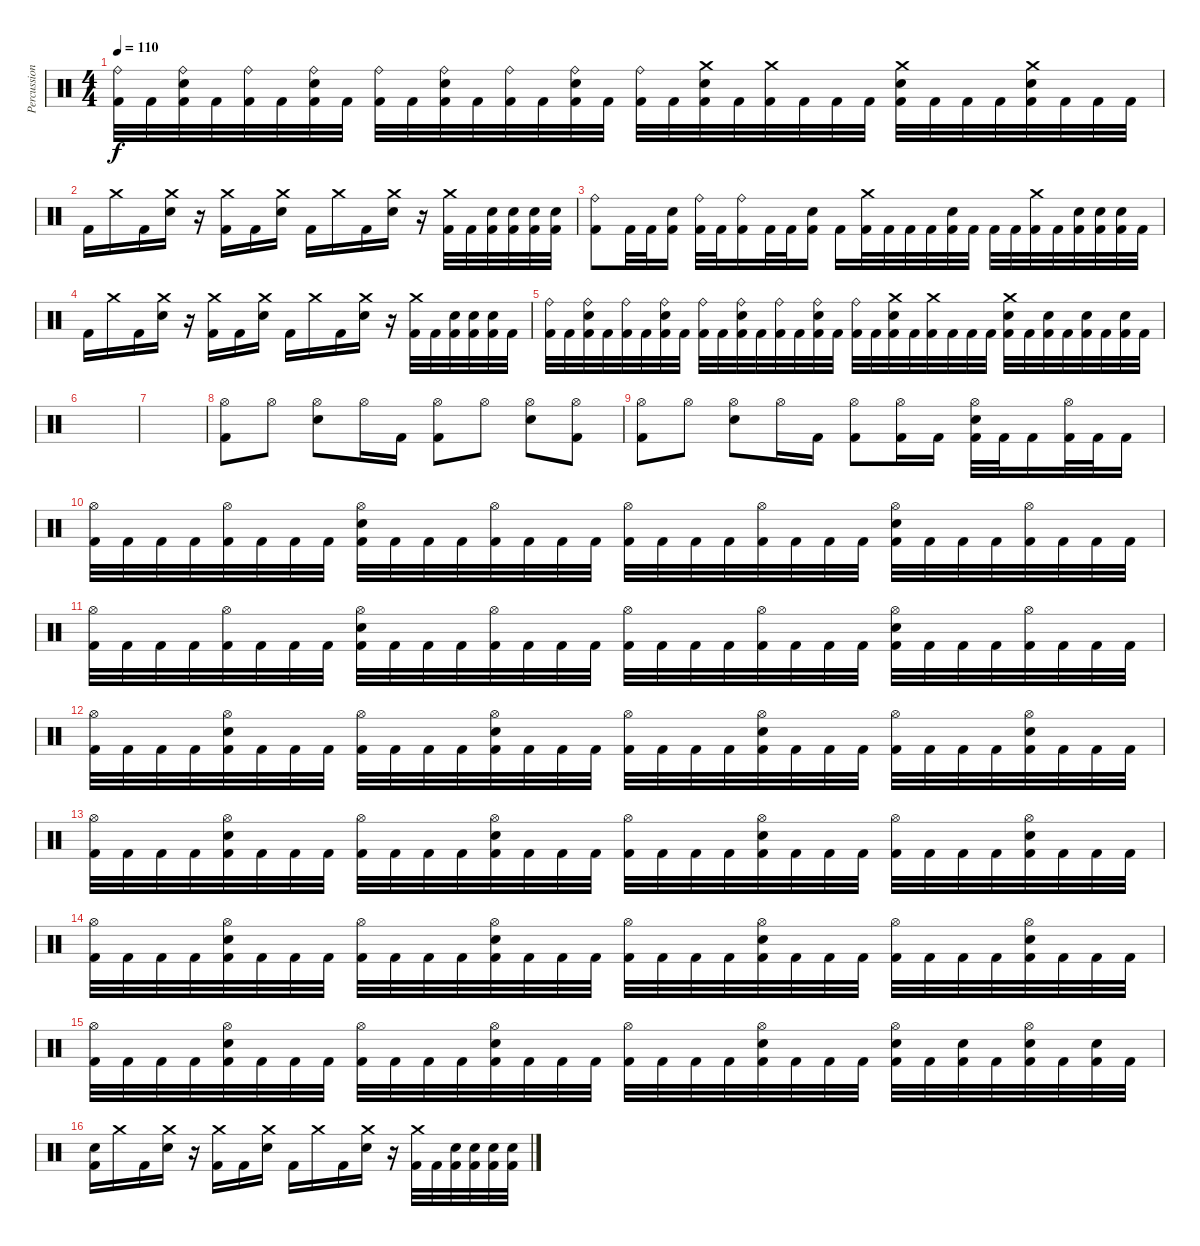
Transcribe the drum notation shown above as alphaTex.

\track ("Percussion" "Percussion") {instrument percussion}
\staff {score}
\articulation defaults
\ts (4 4)
\tempo 110
\clef neutral
\ks c
("Ride (bell)" "Kick (hit) 2").32{dy f} "Kick (hit) 2".32 ("Ride (bell)" "Electric Snare (hit)" "Kick (hit) 2").32 "Kick (hit) 2".32 ("Ride (bell)" "Kick (hit) 2").32 "Kick (hit) 2".32 ("Ride (bell)" "Electric Snare (hit)" "Kick (hit) 2").32 "Kick (hit) 2".32 ("Ride (bell)" "Kick (hit) 2").32 "Kick (hit) 2".32 ("Ride (bell)" "Electric Snare (hit)" "Kick (hit) 2").32 "Kick (hit) 2".32 ("Ride (bell)" "Kick (hit) 2").32 "Kick (hit) 2".32 ("Ride (bell)" "Electric Snare (hit)" "Kick (hit) 2").32 "Kick (hit) 2".32 ("Ride (bell)" "Kick (hit) 2").32 "Kick (hit) 2".32 ("Crash medium (hit)" "Electric Snare (hit)" "Kick (hit) 2").32 "Kick (hit) 2".32 ("Crash medium (hit)" "Kick (hit) 2").32 "Kick (hit) 2".32 "Kick (hit) 2".32 "Kick (hit) 2".32 ("Crash medium (hit)" "Electric Snare (hit)" "Kick (hit) 2").32 "Kick (hit) 2".32 "Kick (hit) 2".32 "Kick (hit) 2".32 ("Crash medium (hit)" "Electric Snare (hit)" "Kick (hit) 2").32 "Kick (hit) 2".32 "Kick (hit) 2".32 "Kick (hit) 2".32 |
"Kick (hit) 2".16 "Crash medium (hit)".16 "Kick (hit) 2".16 ("Crash medium (hit)" "Electric Snare (hit)").16 r.16 ("Crash medium (hit)" "Kick (hit) 2").16 "Kick (hit) 2".16 ("Crash medium (hit)" "Electric Snare (hit)").16 "Kick (hit) 2".16 "Crash medium (hit)".16 "Kick (hit) 2".16 ("Crash medium (hit)" "Electric Snare (hit)").16 r.16 ("Crash medium (hit)" "Kick (hit) 2").32 "Kick (hit) 2".32 ("Electric Snare (hit)" "Kick (hit) 2").32 ("Electric Snare (hit)" "Kick (hit) 2").32 ("Electric Snare (hit)" "Kick (hit) 2").32 ("Electric Snare (hit)" "Kick (hit) 2").32 |
("Ride (bell)" "Kick (hit) 2").8 "Kick (hit) 2".32 "Kick (hit) 2".32 ("Electric Snare (hit)" "Kick (hit) 2").16 ("Ride (bell)" "Kick (hit) 2").32 "Kick (hit) 2".32 ("Ride (bell)" "Kick (hit) 2").16 "Kick (hit) 2".32 "Kick (hit) 2".32 ("Electric Snare (hit)" "Kick (hit) 2").16 "Kick (hit) 2".16 ("Crash medium (hit)" "Kick (hit) 2").32 "Kick (hit) 2".32 "Kick (hit) 2".32 "Kick (hit) 2".32 ("Electric Snare (hit)" "Kick (hit) 2").32 "Kick (hit) 2".32 "Kick (hit) 2".32 "Kick (hit) 2".32 ("Crash medium (hit)" "Kick (hit) 2").32 "Kick (hit) 2".32 ("Electric Snare (hit)" "Kick (hit) 2").32 ("Electric Snare (hit)" "Kick (hit) 2").32 ("Electric Snare (hit)" "Kick (hit) 2").32 "Kick (hit) 2".32 |
"Kick (hit) 2".16 "Crash medium (hit)".16 "Kick (hit) 2".16 ("Crash medium (hit)" "Electric Snare (hit)").16 r.16 ("Crash medium (hit)" "Kick (hit) 2").16 "Kick (hit) 2".16 ("Crash medium (hit)" "Electric Snare (hit)").16 "Kick (hit) 2".16 "Crash medium (hit)".16 "Kick (hit) 2".16 ("Crash medium (hit)" "Electric Snare (hit)").16 r.16 ("Crash medium (hit)" "Kick (hit) 2").32 "Kick (hit) 2".32 ("Electric Snare (hit)" "Kick (hit) 2").32 ("Electric Snare (hit)" "Kick (hit) 2").32 ("Electric Snare (hit)" "Kick (hit) 2").32 "Kick (hit) 2".32 |
("Ride (bell)" "Kick (hit) 2").32 "Kick (hit) 2".32 ("Ride (bell)" "Electric Snare (hit)" "Kick (hit) 2").32 "Kick (hit) 2".32 ("Ride (bell)" "Kick (hit) 2").32 "Kick (hit) 2".32 ("Ride (bell)" "Electric Snare (hit)" "Kick (hit) 2").32 "Kick (hit) 2".32 ("Ride (bell)" "Kick (hit) 2").32 "Kick (hit) 2".32 ("Ride (bell)" "Electric Snare (hit)" "Kick (hit) 2").32 "Kick (hit) 2".32 ("Ride (bell)" "Kick (hit) 2").32 "Kick (hit) 2".32 ("Ride (bell)" "Electric Snare (hit)" "Kick (hit) 2").32 "Kick (hit) 2".32 ("Ride (bell)" "Kick (hit) 2").32 "Kick (hit) 2".32 ("Crash medium (hit)" "Electric Snare (hit)" "Kick (hit) 2").32 "Kick (hit) 2".32 ("Crash medium (hit)" "Kick (hit) 2").32 "Kick (hit) 2".32 "Kick (hit) 2".32 "Kick (hit) 2".32 ("Crash medium (hit)" "Electric Snare (hit)" "Kick (hit) 2").32 "Kick (hit) 2".32 ("Electric Snare (hit)" "Kick (hit) 2").32 "Kick (hit) 2".32 ("Electric Snare (hit)" "Kick (hit) 2").32 "Kick (hit) 2".32 ("Electric Snare (hit)" "Kick (hit) 2").32 "Kick (hit) 2".32 |
|
|
("Hi-Hat (open)" "Kick (hit) 2").8 "Hi-Hat (open)".8 ("Hi-Hat (open)" "Electric Snare (hit)").8 "Hi-Hat (open)".16 "Kick (hit) 2".16 ("Hi-Hat (open)" "Kick (hit) 2").8 "Hi-Hat (open)".8 ("Hi-Hat (open)" "Electric Snare (hit)").8 ("Hi-Hat (open)" "Kick (hit) 2").8 |
("Hi-Hat (open)" "Kick (hit) 2").8 "Hi-Hat (open)".8 ("Hi-Hat (open)" "Electric Snare (hit)").8 "Hi-Hat (open)".16 "Kick (hit) 2".16 ("Hi-Hat (open)" "Kick (hit) 2").8 ("Hi-Hat (open)" "Kick (hit) 2").16 "Kick (hit) 2".16 ("Hi-Hat (open)" "Electric Snare (hit)" "Kick (hit) 2").32 "Kick (hit) 2".32 "Kick (hit) 2".16 ("Hi-Hat (open)" "Kick (hit) 2").32 "Kick (hit) 2".32 "Kick (hit) 2".16 |
("Hi-Hat (open)" "Kick (hit) 2").32 "Kick (hit) 2".32 "Kick (hit) 2".32 "Kick (hit) 2".32 ("Hi-Hat (open)" "Kick (hit) 2").32 "Kick (hit) 2".32 "Kick (hit) 2".32 "Kick (hit) 2".32 ("Hi-Hat (open)" "Electric Snare (hit)" "Kick (hit) 2").32 "Kick (hit) 2".32 "Kick (hit) 2".32 "Kick (hit) 2".32 ("Hi-Hat (open)" "Kick (hit) 2").32 "Kick (hit) 2".32 "Kick (hit) 2".32 "Kick (hit) 2".32 ("Hi-Hat (open)" "Kick (hit) 2").32 "Kick (hit) 2".32 "Kick (hit) 2".32 "Kick (hit) 2".32 ("Hi-Hat (open)" "Kick (hit) 2").32 "Kick (hit) 2".32 "Kick (hit) 2".32 "Kick (hit) 2".32 ("Hi-Hat (open)" "Electric Snare (hit)" "Kick (hit) 2").32 "Kick (hit) 2".32 "Kick (hit) 2".32 "Kick (hit) 2".32 ("Hi-Hat (open)" "Kick (hit) 2").32 "Kick (hit) 2".32 "Kick (hit) 2".32 "Kick (hit) 2".32 |
("Hi-Hat (open)" "Kick (hit) 2").32 "Kick (hit) 2".32 "Kick (hit) 2".32 "Kick (hit) 2".32 ("Hi-Hat (open)" "Kick (hit) 2").32 "Kick (hit) 2".32 "Kick (hit) 2".32 "Kick (hit) 2".32 ("Hi-Hat (open)" "Electric Snare (hit)" "Kick (hit) 2").32 "Kick (hit) 2".32 "Kick (hit) 2".32 "Kick (hit) 2".32 ("Hi-Hat (open)" "Kick (hit) 2").32 "Kick (hit) 2".32 "Kick (hit) 2".32 "Kick (hit) 2".32 ("Hi-Hat (open)" "Kick (hit) 2").32 "Kick (hit) 2".32 "Kick (hit) 2".32 "Kick (hit) 2".32 ("Hi-Hat (open)" "Kick (hit) 2").32 "Kick (hit) 2".32 "Kick (hit) 2".32 "Kick (hit) 2".32 ("Hi-Hat (open)" "Electric Snare (hit)" "Kick (hit) 2").32 "Kick (hit) 2".32 "Kick (hit) 2".32 "Kick (hit) 2".32 ("Hi-Hat (open)" "Kick (hit) 2").32 "Kick (hit) 2".32 "Kick (hit) 2".32 "Kick (hit) 2".32 |
("Hi-Hat (open)" "Kick (hit) 2").32 "Kick (hit) 2".32 "Kick (hit) 2".32 "Kick (hit) 2".32 ("Hi-Hat (open)" "Electric Snare (hit)" "Kick (hit) 2").32 "Kick (hit) 2".32 "Kick (hit) 2".32 "Kick (hit) 2".32 ("Hi-Hat (open)" "Kick (hit) 2").32 "Kick (hit) 2".32 "Kick (hit) 2".32 "Kick (hit) 2".32 ("Hi-Hat (open)" "Electric Snare (hit)" "Kick (hit) 2").32 "Kick (hit) 2".32 "Kick (hit) 2".32 "Kick (hit) 2".32 ("Hi-Hat (open)" "Kick (hit) 2").32 "Kick (hit) 2".32 "Kick (hit) 2".32 "Kick (hit) 2".32 ("Hi-Hat (open)" "Electric Snare (hit)" "Kick (hit) 2").32 "Kick (hit) 2".32 "Kick (hit) 2".32 "Kick (hit) 2".32 ("Hi-Hat (open)" "Kick (hit) 2").32 "Kick (hit) 2".32 "Kick (hit) 2".32 "Kick (hit) 2".32 ("Hi-Hat (open)" "Electric Snare (hit)" "Kick (hit) 2").32 "Kick (hit) 2".32 "Kick (hit) 2".32 "Kick (hit) 2".32 |
("Hi-Hat (open)" "Kick (hit) 2").32 "Kick (hit) 2".32 "Kick (hit) 2".32 "Kick (hit) 2".32 ("Hi-Hat (open)" "Electric Snare (hit)" "Kick (hit) 2").32 "Kick (hit) 2".32 "Kick (hit) 2".32 "Kick (hit) 2".32 ("Hi-Hat (open)" "Kick (hit) 2").32 "Kick (hit) 2".32 "Kick (hit) 2".32 "Kick (hit) 2".32 ("Hi-Hat (open)" "Electric Snare (hit)" "Kick (hit) 2").32 "Kick (hit) 2".32 "Kick (hit) 2".32 "Kick (hit) 2".32 ("Hi-Hat (open)" "Kick (hit) 2").32 "Kick (hit) 2".32 "Kick (hit) 2".32 "Kick (hit) 2".32 ("Hi-Hat (open)" "Electric Snare (hit)" "Kick (hit) 2").32 "Kick (hit) 2".32 "Kick (hit) 2".32 "Kick (hit) 2".32 ("Hi-Hat (open)" "Kick (hit) 2").32 "Kick (hit) 2".32 "Kick (hit) 2".32 "Kick (hit) 2".32 ("Hi-Hat (open)" "Electric Snare (hit)" "Kick (hit) 2").32 "Kick (hit) 2".32 "Kick (hit) 2".32 "Kick (hit) 2".32 |
("Hi-Hat (open)" "Kick (hit) 2").32 "Kick (hit) 2".32 "Kick (hit) 2".32 "Kick (hit) 2".32 ("Hi-Hat (open)" "Electric Snare (hit)" "Kick (hit) 2").32 "Kick (hit) 2".32 "Kick (hit) 2".32 "Kick (hit) 2".32 ("Hi-Hat (open)" "Kick (hit) 2").32 "Kick (hit) 2".32 "Kick (hit) 2".32 "Kick (hit) 2".32 ("Hi-Hat (open)" "Electric Snare (hit)" "Kick (hit) 2").32 "Kick (hit) 2".32 "Kick (hit) 2".32 "Kick (hit) 2".32 ("Hi-Hat (open)" "Kick (hit) 2").32 "Kick (hit) 2".32 "Kick (hit) 2".32 "Kick (hit) 2".32 ("Hi-Hat (open)" "Electric Snare (hit)" "Kick (hit) 2").32 "Kick (hit) 2".32 "Kick (hit) 2".32 "Kick (hit) 2".32 ("Hi-Hat (open)" "Kick (hit) 2").32 "Kick (hit) 2".32 "Kick (hit) 2".32 "Kick (hit) 2".32 ("Hi-Hat (open)" "Electric Snare (hit)" "Kick (hit) 2").32 "Kick (hit) 2".32 "Kick (hit) 2".32 "Kick (hit) 2".32 |
("Hi-Hat (open)" "Kick (hit) 2").32 "Kick (hit) 2".32 "Kick (hit) 2".32 "Kick (hit) 2".32 ("Hi-Hat (open)" "Electric Snare (hit)" "Kick (hit) 2").32 "Kick (hit) 2".32 "Kick (hit) 2".32 "Kick (hit) 2".32 ("Hi-Hat (open)" "Kick (hit) 2").32 "Kick (hit) 2".32 "Kick (hit) 2".32 "Kick (hit) 2".32 ("Hi-Hat (open)" "Electric Snare (hit)" "Kick (hit) 2").32 "Kick (hit) 2".32 "Kick (hit) 2".32 "Kick (hit) 2".32 ("Hi-Hat (open)" "Kick (hit) 2").32 "Kick (hit) 2".32 "Kick (hit) 2".32 "Kick (hit) 2".32 ("Hi-Hat (open)" "Electric Snare (hit)" "Kick (hit) 2").32 "Kick (hit) 2".32 "Kick (hit) 2".32 "Kick (hit) 2".32 ("Hi-Hat (open)" "Electric Snare (hit)" "Kick (hit) 2").32 "Kick (hit) 2".32 ("Electric Snare (hit)" "Kick (hit) 2").32 "Kick (hit) 2".32 ("Hi-Hat (open)" "Electric Snare (hit)" "Kick (hit) 2").32 "Kick (hit) 2".32 ("Electric Snare (hit)" "Kick (hit) 2").32 "Kick (hit) 2".32 |
("Electric Snare (hit)" "Kick (hit) 2").16 "Crash medium (hit)".16 "Kick (hit) 2".16 ("Crash medium (hit)" "Electric Snare (hit)").16 r.16 ("Crash medium (hit)" "Kick (hit) 2").16 "Kick (hit) 2".16 ("Crash medium (hit)" "Electric Snare (hit)").16 "Kick (hit) 2".16 "Crash medium (hit)".16 "Kick (hit) 2".16 ("Crash medium (hit)" "Electric Snare (hit)").16 r.16 ("Crash medium (hit)" "Kick (hit) 2").32 "Kick (hit) 2".32 ("Electric Snare (hit)" "Kick (hit) 2").32 ("Electric Snare (hit)" "Kick (hit) 2").32 ("Electric Snare (hit)" "Kick (hit) 2").32 ("Electric Snare (hit)" "Kick (hit) 2").32
